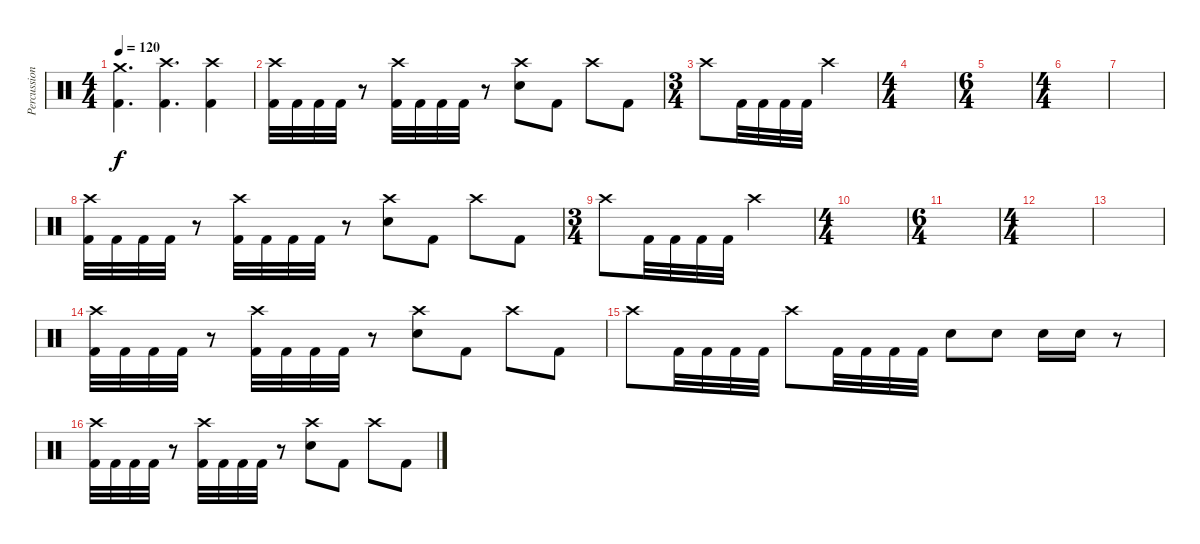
\track ("Percussion" "Percussion") {instrument percussion}
\staff {score}
\articulation defaults
\ts (4 4)
\tempo 120
\clef neutral
\ks c
("Crash medium (hit)" "Kick (hit) 2").4{d dy f} ("Crash high (hit)" "Kick (hit) 2").4{d} ("Crash high (hit)" "Kick (hit) 2").4 |
("Crash high (hit)" "Kick (hit) 2").32 "Kick (hit) 2".32 "Kick (hit) 2".32 "Kick (hit) 2".32 r.8 ("Crash high (hit)" "Kick (hit) 2").32 "Kick (hit) 2".32 "Kick (hit) 2".32 "Kick (hit) 2".32 r.8 ("Crash high (hit)" "Electric Snare (hit)").8 "Kick (hit) 2".8 "Crash high (hit)".8 "Kick (hit) 2".8 |
\ts (3 4)
"Crash high (hit)".8 "Kick (hit) 2".32 "Kick (hit) 2".32 "Kick (hit) 2".32 "Kick (hit) 2".32 "Crash high (hit)".2 |
\ts (4 4)
|
\ts (6 4)
|
\ts (4 4)
|
|
("Crash high (hit)" "Kick (hit) 2").32 "Kick (hit) 2".32 "Kick (hit) 2".32 "Kick (hit) 2".32 r.8 ("Crash high (hit)" "Kick (hit) 2").32 "Kick (hit) 2".32 "Kick (hit) 2".32 "Kick (hit) 2".32 r.8 ("Crash high (hit)" "Electric Snare (hit)").8 "Kick (hit) 2".8 "Crash high (hit)".8 "Kick (hit) 2".8 |
\ts (3 4)
"Crash high (hit)".8 "Kick (hit) 2".32 "Kick (hit) 2".32 "Kick (hit) 2".32 "Kick (hit) 2".32 "Crash high (hit)".2 |
\ts (4 4)
|
\ts (6 4)
|
\ts (4 4)
|
|
("Crash high (hit)" "Kick (hit) 2").32 "Kick (hit) 2".32 "Kick (hit) 2".32 "Kick (hit) 2".32 r.8 ("Crash high (hit)" "Kick (hit) 2").32 "Kick (hit) 2".32 "Kick (hit) 2".32 "Kick (hit) 2".32 r.8 ("Crash high (hit)" "Electric Snare (hit)").8 "Kick (hit) 2".8 "Crash high (hit)".8 "Kick (hit) 2".8 |
"Crash high (hit)".8 "Kick (hit) 2".32 "Kick (hit) 2".32 "Kick (hit) 2".32 "Kick (hit) 2".32 "Crash high (hit)".8 "Kick (hit) 2".32 "Kick (hit) 2".32 "Kick (hit) 2".32 "Kick (hit) 2".32 "Electric Snare (hit)".8 "Electric Snare (hit)".8 "Electric Snare (hit)".16 "Electric Snare (hit)".16 r.8 |
("Crash high (hit)" "Kick (hit) 2").32 "Kick (hit) 2".32 "Kick (hit) 2".32 "Kick (hit) 2".32 r.8 ("Crash high (hit)" "Kick (hit) 2").32 "Kick (hit) 2".32 "Kick (hit) 2".32 "Kick (hit) 2".32 r.8 ("Crash high (hit)" "Electric Snare (hit)").8 "Kick (hit) 2".8 "Crash high (hit)".8 "Kick (hit) 2".8
